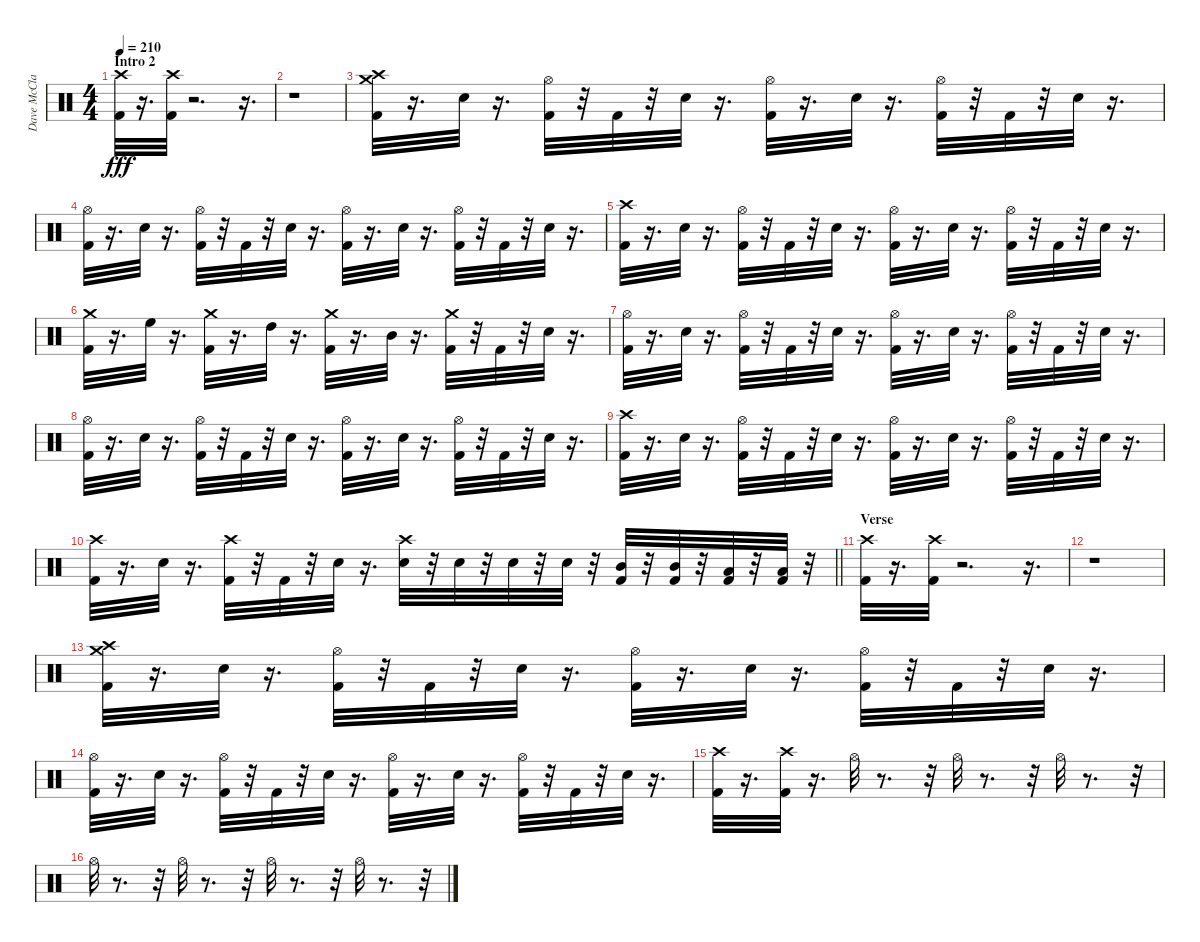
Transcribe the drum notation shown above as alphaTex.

\track ("Dave McClain" "Dave McCla") {instrument percussion}
\staff {score}
\articulation defaults
\ts (4 4)
\section ("" "Intro 2")
\tempo 210
\clef neutral
\ks c
("Crash high (hit)" "Kick (hit) 2").32{dy fff} r.16{d} ("Crash high (hit)" "Kick (hit) 2").32 r.2{d} r.16{d} |
r.1 |
("Crash medium (hit)" "Crash high (hit)" "Kick (hit) 2").32 r.16{d} "Snare (hit) 2".32 r.16{d} ("Kick (hit) 2" "Hi-Hat (open)").32 r.32 "Kick (hit) 2".32 r.32 "Snare (hit) 2".32 r.16{d} ("Hi-Hat (open)" "Kick (hit) 2").32 r.16{d} "Snare (hit) 2".32 r.16{d} ("Hi-Hat (open)" "Kick (hit) 2").32 r.32 "Kick (hit) 2".32 r.32 "Snare (hit) 2".32 r.16{d} |
("Hi-Hat (open)" "Kick (hit) 2").32 r.16{d} "Snare (hit) 2".32 r.16{d} ("Hi-Hat (open)" "Kick (hit) 2").32 r.32 "Kick (hit) 2".32 r.32 "Snare (hit) 2".32 r.16{d} ("Hi-Hat (open)" "Kick (hit) 2").32 r.16{d} "Snare (hit) 2".32 r.16{d} ("Hi-Hat (open)" "Kick (hit) 2").32 r.32 "Kick (hit) 2".32 r.32 "Snare (hit) 2".32 r.16{d} |
("Crash high (hit)" "Kick (hit) 2").32 r.16{d} "Snare (hit) 2".32 r.16{d} ("Hi-Hat (open)" "Kick (hit) 2").32 r.32 "Kick (hit) 2".32 r.32 "Snare (hit) 2".32 r.16{d} ("Hi-Hat (open)" "Kick (hit) 2").32 r.16{d} "Snare (hit) 2".32 r.16{d} ("Hi-Hat (open)" "Kick (hit) 2").32 r.32 "Kick (hit) 2".32 r.32 "Snare (hit) 2".32 r.16{d} |
("Crash medium (hit)" "Kick (hit) 2").32 r.16{d} "High Floor Tom (hit)".32 r.16{d} ("Kick (hit) 2" "Crash medium (hit)").32 r.16{d} "High Tom (hit)".32 r.16{d} ("Kick (hit) 2" "Crash medium (hit)").32 r.16{d} "Mid Tom (hit)".32 r.16{d} ("Kick (hit) 2" "Crash medium (hit)").32 r.32 "Kick (hit) 2".32 r.32 "Snare (hit) 2".32 r.16{d} |
("Hi-Hat (open)" "Kick (hit) 2").32 r.16{d} "Snare (hit) 2".32 r.16{d} ("Kick (hit) 2" "Hi-Hat (open)").32 r.32 "Kick (hit) 2".32 r.32 "Snare (hit) 2".32 r.16{d} ("Hi-Hat (open)" "Kick (hit) 2").32 r.16{d} "Snare (hit) 2".32 r.16{d} ("Hi-Hat (open)" "Kick (hit) 2").32 r.32 "Kick (hit) 2".32 r.32 "Snare (hit) 2".32 r.16{d} |
("Hi-Hat (open)" "Kick (hit) 2").32 r.16{d} "Snare (hit) 2".32 r.16{d} ("Hi-Hat (open)" "Kick (hit) 2").32 r.32 "Kick (hit) 2".32 r.32 "Snare (hit) 2".32 r.16{d} ("Hi-Hat (open)" "Kick (hit) 2").32 r.16{d} "Snare (hit) 2".32 r.16{d} ("Hi-Hat (open)" "Kick (hit) 2").32 r.32 "Kick (hit) 2".32 r.32 "Snare (hit) 2".32 r.16{d} |
("Crash high (hit)" "Kick (hit) 2").32 r.16{d} "Snare (hit) 2".32 r.16{d} ("Hi-Hat (open)" "Kick (hit) 2").32 r.32 "Kick (hit) 2".32 r.32 "Snare (hit) 2".32 r.16{d} ("Hi-Hat (open)" "Kick (hit) 2").32 r.16{d} "Snare (hit) 2".32 r.16{d} ("Hi-Hat (open)" "Kick (hit) 2").32 r.32 "Kick (hit) 2".32 r.32 "Snare (hit) 2".32 r.16{d} |
\barLineRight lightlight
("Crash high (hit)" "Kick (hit) 2").32 r.16{d} "Snare (hit) 2".32 r.16{d} ("Crash high (hit)" "Kick (hit) 2").32 r.32 "Kick (hit) 2".32 r.32 "Snare (hit) 2".32 r.16{d} ("Crash high (hit)" "Snare (hit) 2").32 r.32 "Snare (hit) 2".32 r.32 "Snare (hit) 2".32 r.32 "Snare (hit) 2".32 r.32 ("Mid Tom (hit)" "Kick (hit) 2").32 r.32 ("Mid Tom (hit)" "Kick (hit) 2").32 r.32 ("Low Tom (hit)" "Kick (hit) 2").32 r.32 ("Low Tom (hit)" "Kick (hit) 2").32 r.32 |
\section ("" "Verse")
("Crash high (hit)" "Kick (hit) 2").32 r.16{d} ("Crash high (hit)" "Kick (hit) 2").32 r.2{d} r.16{d} |
r.1 |
("Crash medium (hit)" "Crash high (hit)" "Kick (hit) 2").32 r.16{d} "Snare (hit) 2".32 r.16{d} ("Kick (hit) 2" "Hi-Hat (open)").32 r.32 "Kick (hit) 2".32 r.32 "Snare (hit) 2".32 r.16{d} ("Hi-Hat (open)" "Kick (hit) 2").32 r.16{d} "Snare (hit) 2".32 r.16{d} ("Hi-Hat (open)" "Kick (hit) 2").32 r.32 "Kick (hit) 2".32 r.32 "Snare (hit) 2".32 r.16{d} |
("Hi-Hat (open)" "Kick (hit) 2").32 r.16{d} "Snare (hit) 2".32 r.16{d} ("Hi-Hat (open)" "Kick (hit) 2").32 r.32 "Kick (hit) 2".32 r.32 "Snare (hit) 2".32 r.16{d} ("Hi-Hat (open)" "Kick (hit) 2").32 r.16{d} "Snare (hit) 2".32 r.16{d} ("Hi-Hat (open)" "Kick (hit) 2").32 r.32 "Kick (hit) 2".32 r.32 "Snare (hit) 2".32 r.16{d} |
("Crash high (hit)" "Kick (hit) 2").32 r.16{d} ("Crash high (hit)" "Kick (hit) 2").32 r.16{d} "Hi-Hat (open)".32 r.8{d} r.32 "Hi-Hat (open)".32 r.8{d} r.32 "Hi-Hat (open)".32 r.8{d} r.32 |
"Hi-Hat (open)".32 r.8{d} r.32 "Hi-Hat (open)".32 r.8{d} r.32 "Hi-Hat (open)".32 r.8{d} r.32 "Hi-Hat (open)".32 r.8{d} r.32
